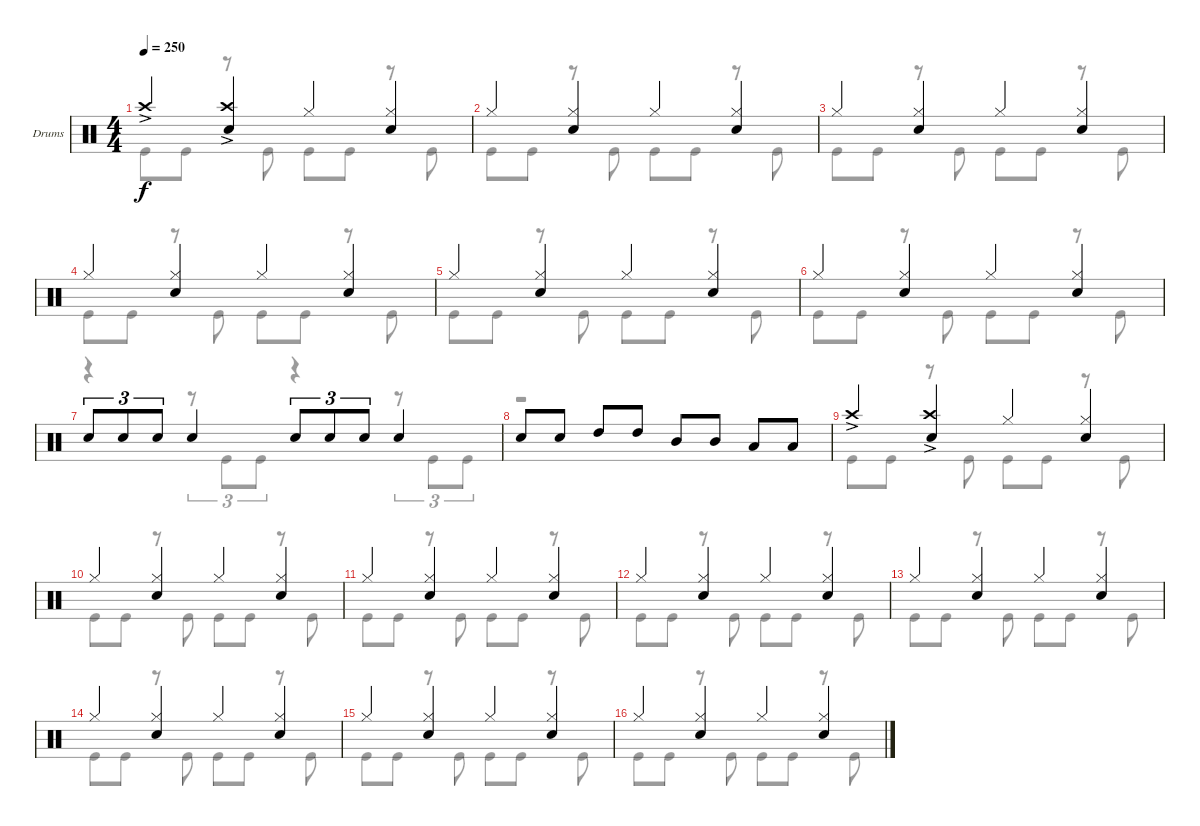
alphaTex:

\bracketExtendMode groupsimilarinstruments
\firstSystemTrackNameOrientation horizontal
\otherSystemsTrackNameOrientation horizontal
\track ("Drumkit" "Drums") {instrument percussion}
\staff {score}
\articulation defaults
\voice
\ts (4 4)
\tempo 250
\clef neutral
\ks c "Crash high (hit)"{ac}.4{dy f}
("Crash high (hit)"{ac} "Snare (hit) 2").4 "Hi-Hat (closed)".4 ("Hi-Hat (closed)" "Snare (hit) 2").4 |
"Hi-Hat (closed)".4 ("Hi-Hat (closed)" "Snare (hit) 2").4 "Hi-Hat (closed)".4 ("Hi-Hat (closed)" "Snare (hit) 2").4 |
"Hi-Hat (closed)".4 ("Hi-Hat (closed)" "Snare (hit) 2").4 "Hi-Hat (closed)".4 ("Hi-Hat (closed)" "Snare (hit) 2").4 |
"Hi-Hat (closed)".4 ("Hi-Hat (closed)" "Snare (hit) 2").4 "Hi-Hat (closed)".4 ("Hi-Hat (closed)" "Snare (hit) 2").4 |
"Hi-Hat (closed)".4 ("Hi-Hat (closed)" "Snare (hit) 2").4 "Hi-Hat (closed)".4 ("Hi-Hat (closed)" "Snare (hit) 2").4 |
"Hi-Hat (closed)".4 ("Hi-Hat (closed)" "Snare (hit) 2").4 "Hi-Hat (closed)".4 ("Hi-Hat (closed)" "Snare (hit) 2").4 |
"Snare (hit) 2".8{tu (3 2)} "Snare (hit) 2".8{tu (3 2)} "Snare (hit) 2".8{tu (3 2)} "Snare (hit) 2".4 "Snare (hit) 2".8{tu (3 2)} "Snare (hit) 2".8{tu (3 2)} "Snare (hit) 2".8{tu (3 2)} "Snare (hit) 2".4 |
"Snare (hit) 2".8 "Snare (hit) 2".8 "High Tom (hit)".8 "High Tom (hit)".8 "Mid Tom (hit)".8 "Mid Tom (hit)".8 "Low Tom (hit)".8 "Low Tom (hit)".8 |
"Crash high (hit)"{ac}.4 ("Crash high (hit)"{ac} "Snare (hit) 2").4 "Hi-Hat (closed)".4 ("Hi-Hat (closed)" "Snare (hit) 2").4 |
"Hi-Hat (closed)".4 ("Hi-Hat (closed)" "Snare (hit) 2").4 "Hi-Hat (closed)".4 ("Hi-Hat (closed)" "Snare (hit) 2").4 |
"Hi-Hat (closed)".4 ("Hi-Hat (closed)" "Snare (hit) 2").4 "Hi-Hat (closed)".4 ("Hi-Hat (closed)" "Snare (hit) 2").4 |
"Hi-Hat (closed)".4 ("Hi-Hat (closed)" "Snare (hit) 2").4 "Hi-Hat (closed)".4 ("Hi-Hat (closed)" "Snare (hit) 2").4 |
"Hi-Hat (closed)".4 ("Hi-Hat (closed)" "Snare (hit) 2").4 "Hi-Hat (closed)".4 ("Hi-Hat (closed)" "Snare (hit) 2").4 |
"Hi-Hat (closed)".4 ("Hi-Hat (closed)" "Snare (hit) 2").4 "Hi-Hat (closed)".4 ("Hi-Hat (closed)" "Snare (hit) 2").4 |
"Hi-Hat (closed)".4 ("Hi-Hat (closed)" "Snare (hit) 2").4 "Hi-Hat (closed)".4 ("Hi-Hat (closed)" "Snare (hit) 2").4 |
"Hi-Hat (closed)".4 ("Hi-Hat (closed)" "Snare (hit) 2").4 "Hi-Hat (closed)".4 ("Hi-Hat (closed)" "Snare (hit) 2").4
\voice
\clef neutral
\ottava regular
\simile none
\ks c "Kick (hit)".8{dy f} "Kick (hit)".8
r.8 "Kick (hit)".8 "Kick (hit)".8 "Kick (hit)".8 r.8 "Kick (hit)".8 |
"Kick (hit)".8 "Kick (hit)".8 r.8 "Kick (hit)".8 "Kick (hit)".8 "Kick (hit)".8 r.8 "Kick (hit)".8 |
"Kick (hit)".8 "Kick (hit)".8 r.8 "Kick (hit)".8 "Kick (hit)".8 "Kick (hit)".8 r.8 "Kick (hit)".8 |
"Kick (hit)".8 "Kick (hit)".8 r.8 "Kick (hit)".8 "Kick (hit)".8 "Kick (hit)".8 r.8 "Kick (hit)".8 |
"Kick (hit)".8 "Kick (hit)".8 r.8 "Kick (hit)".8 "Kick (hit)".8 "Kick (hit)".8 r.8 "Kick (hit)".8 |
"Kick (hit)".8 "Kick (hit)".8 r.8 "Kick (hit)".8 "Kick (hit)".8 "Kick (hit)".8 r.8 "Kick (hit)".8 |
r.4 r.8{tu (3 2)} "Kick (hit)".8{tu (3 2)} "Kick (hit)".8{tu (3 2)} r.4 r.8{tu (3 2)} "Kick (hit)".8{tu (3 2)} "Kick (hit)".8{tu (3 2)} |
r.1 |
"Kick (hit)".8 "Kick (hit)".8 r.8 "Kick (hit)".8 "Kick (hit)".8 "Kick (hit)".8 r.8 "Kick (hit)".8 |
"Kick (hit)".8 "Kick (hit)".8 r.8 "Kick (hit)".8 "Kick (hit)".8 "Kick (hit)".8 r.8 "Kick (hit)".8 |
"Kick (hit)".8 "Kick (hit)".8 r.8 "Kick (hit)".8 "Kick (hit)".8 "Kick (hit)".8 r.8 "Kick (hit)".8 |
"Kick (hit)".8 "Kick (hit)".8 r.8 "Kick (hit)".8 "Kick (hit)".8 "Kick (hit)".8 r.8 "Kick (hit)".8 |
"Kick (hit)".8 "Kick (hit)".8 r.8 "Kick (hit)".8 "Kick (hit)".8 "Kick (hit)".8 r.8 "Kick (hit)".8 |
"Kick (hit)".8 "Kick (hit)".8 r.8 "Kick (hit)".8 "Kick (hit)".8 "Kick (hit)".8 r.8 "Kick (hit)".8 |
"Kick (hit)".8 "Kick (hit)".8 r.8 "Kick (hit)".8 "Kick (hit)".8 "Kick (hit)".8 r.8 "Kick (hit)".8 |
"Kick (hit)".8 "Kick (hit)".8 r.8 "Kick (hit)".8 "Kick (hit)".8 "Kick (hit)".8 r.8 "Kick (hit)".8
